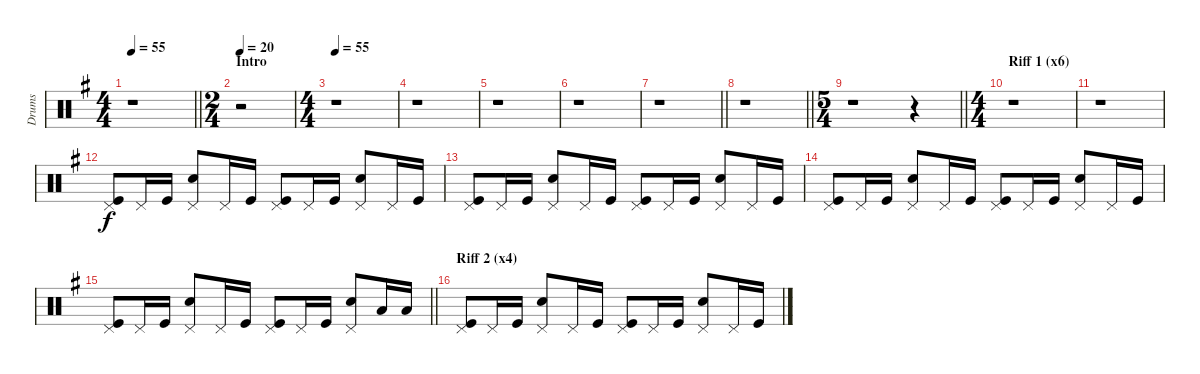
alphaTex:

\track ("Drums" "Drums") {instrument percussion}
\staff {score}
\articulation defaults
\ts (4 4)
\tempo 55
\clef neutral
\barLineRight lightlight
\ks eminor
r.1{dy f} |
\ts (2 4)
\section ("" "Intro")
\tempo 20
r.2 |
\ts (4 4)
\tempo 55
r.1 |
r.1 |
r.1 |
r.1 |
\barLineRight lightlight
r.1 |
\barLineRight lightlight
r.1 |
\ts (5 4)
\barLineRight lightlight
r.1 r.4 |
\ts (4 4)
\section ("" "Riff 1 (x6)")
r.1 |
r.1 |
("Kick (hit)" "Pedal Hi-Hat (hit)").8 "Pedal Hi-Hat (hit)".16 "Kick (hit)".16 ("Snare (hit) 2" "Pedal Hi-Hat (hit)").8 "Pedal Hi-Hat (hit)".16 "Kick (hit)".16 ("Kick (hit)" "Pedal Hi-Hat (hit)").8 "Pedal Hi-Hat (hit)".16 "Kick (hit)".16 ("Snare (hit) 2" "Pedal Hi-Hat (hit)").8 "Pedal Hi-Hat (hit)".16 "Kick (hit)".16 |
("Kick (hit)" "Pedal Hi-Hat (hit)").8 "Pedal Hi-Hat (hit)".16 "Kick (hit)".16 ("Snare (hit) 2" "Pedal Hi-Hat (hit)").8 "Pedal Hi-Hat (hit)".16 "Kick (hit)".16 ("Kick (hit)" "Pedal Hi-Hat (hit)").8 "Pedal Hi-Hat (hit)".16 "Kick (hit)".16 ("Snare (hit) 2" "Pedal Hi-Hat (hit)").8 "Pedal Hi-Hat (hit)".16 "Kick (hit)".16 |
("Kick (hit)" "Pedal Hi-Hat (hit)").8 "Pedal Hi-Hat (hit)".16 "Kick (hit)".16 ("Snare (hit) 2" "Pedal Hi-Hat (hit)").8 "Pedal Hi-Hat (hit)".16 "Kick (hit)".16 ("Kick (hit)" "Pedal Hi-Hat (hit)").8 "Pedal Hi-Hat (hit)".16 "Kick (hit)".16 ("Snare (hit) 2" "Pedal Hi-Hat (hit)").8 "Pedal Hi-Hat (hit)".16 "Kick (hit)".16 |
\barLineRight lightlight
("Kick (hit)" "Pedal Hi-Hat (hit)").8 "Pedal Hi-Hat (hit)".16 "Kick (hit)".16 ("Snare (hit) 2" "Pedal Hi-Hat (hit)").8 "Pedal Hi-Hat (hit)".16 "Kick (hit)".16 ("Kick (hit)" "Pedal Hi-Hat (hit)").8 "Pedal Hi-Hat (hit)".16 "Kick (hit)".16 ("Snare (hit) 2" "Pedal Hi-Hat (hit)").8 "Low Floor Tom (hit)".16 "Low Floor Tom (hit)".16 |
\section ("" "Riff 2 (x4)")
("Kick (hit)" "Pedal Hi-Hat (hit)").8 "Pedal Hi-Hat (hit)".16 "Kick (hit)".16 ("Snare (hit) 2" "Pedal Hi-Hat (hit)").8 "Pedal Hi-Hat (hit)".16 "Kick (hit)".16 ("Kick (hit)" "Pedal Hi-Hat (hit)").8 "Pedal Hi-Hat (hit)".16 "Kick (hit)".16 ("Snare (hit) 2" "Pedal Hi-Hat (hit)").8 "Pedal Hi-Hat (hit)".16 "Kick (hit)".16
